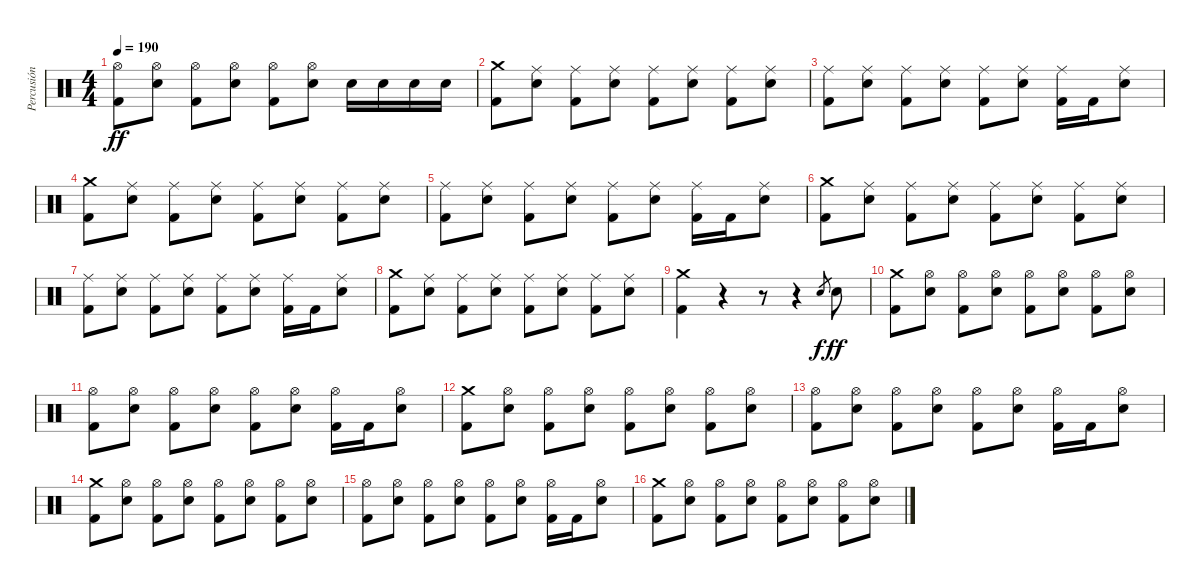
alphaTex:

\track ("Percusión" "Percusión") {instrument percussion}
\staff {score}
\articulation defaults
\ts (4 4)
\tempo 190
\clef neutral
\ks c
("Hi-Hat (open)" "Kick (hit) 2").8{dy ff} ("Hi-Hat (open)" "Snare (hit) 2").8 ("Hi-Hat (open)" "Kick (hit) 2").8 ("Hi-Hat (open)" "Snare (hit) 2").8 ("Hi-Hat (open)" "Kick (hit) 2").8 ("Hi-Hat (open)" "Snare (hit) 2").8 "Snare (hit) 2".16 "Snare (hit) 2".16 "Snare (hit) 2".16 "Snare (hit) 2".16 |
("Crash medium (hit)" "Kick (hit) 2").8 ("Ride (middle)" "Snare (hit) 2").8 ("Ride (middle)" "Kick (hit) 2").8 ("Ride (middle)" "Snare (hit) 2").8 ("Ride (middle)" "Kick (hit) 2").8 ("Ride (middle)" "Snare (hit) 2").8 ("Ride (middle)" "Kick (hit) 2").8 ("Ride (middle)" "Snare (hit) 2").8 |
("Ride (middle)" "Kick (hit) 2").8 ("Ride (middle)" "Snare (hit) 2").8 ("Ride (middle)" "Kick (hit) 2").8 ("Ride (middle)" "Snare (hit) 2").8 ("Ride (middle)" "Kick (hit) 2").8 ("Ride (middle)" "Snare (hit) 2").8 ("Ride (middle)" "Kick (hit) 2").16 "Kick (hit) 2".16 ("Ride (middle)" "Snare (hit) 2").8 |
("Crash medium (hit)" "Kick (hit) 2").8 ("Ride (middle)" "Snare (hit) 2").8 ("Ride (middle)" "Kick (hit) 2").8 ("Ride (middle)" "Snare (hit) 2").8 ("Ride (middle)" "Kick (hit) 2").8 ("Ride (middle)" "Snare (hit) 2").8 ("Ride (middle)" "Kick (hit) 2").8 ("Ride (middle)" "Snare (hit) 2").8 |
("Ride (middle)" "Kick (hit) 2").8 ("Ride (middle)" "Snare (hit) 2").8 ("Ride (middle)" "Kick (hit) 2").8 ("Ride (middle)" "Snare (hit) 2").8 ("Ride (middle)" "Kick (hit) 2").8 ("Ride (middle)" "Snare (hit) 2").8 ("Ride (middle)" "Kick (hit) 2").16 "Kick (hit) 2".16 ("Ride (middle)" "Snare (hit) 2").8 |
("Crash medium (hit)" "Kick (hit) 2").8 ("Ride (middle)" "Snare (hit) 2").8 ("Ride (middle)" "Kick (hit) 2").8 ("Ride (middle)" "Snare (hit) 2").8 ("Ride (middle)" "Kick (hit) 2").8 ("Ride (middle)" "Snare (hit) 2").8 ("Ride (middle)" "Kick (hit) 2").8 ("Ride (middle)" "Snare (hit) 2").8 |
("Ride (middle)" "Kick (hit) 2").8 ("Ride (middle)" "Snare (hit) 2").8 ("Ride (middle)" "Kick (hit) 2").8 ("Ride (middle)" "Snare (hit) 2").8 ("Ride (middle)" "Kick (hit) 2").8 ("Ride (middle)" "Snare (hit) 2").8 ("Ride (middle)" "Kick (hit) 2").16 "Kick (hit) 2".16 ("Ride (middle)" "Snare (hit) 2").8 |
("Crash medium (hit)" "Kick (hit) 2").8 ("Ride (middle)" "Snare (hit) 2").8 ("Ride (middle)" "Kick (hit) 2").8 ("Ride (middle)" "Snare (hit) 2").8 ("Ride (middle)" "Kick (hit) 2").8 ("Ride (middle)" "Snare (hit) 2").8 ("Ride (middle)" "Kick (hit) 2").8 ("Ride (middle)" "Snare (hit) 2").8 |
("Crash medium (hit)" "Kick (hit) 2").4 r.4 r.8 r.4 "Snare (hit) 2".8{gr dy f} "Snare (hit) 2".8{dy ff} |
("Crash medium (hit)" "Kick (hit) 2").8 ("Hi-Hat (open)" "Snare (hit) 2").8 ("Hi-Hat (open)" "Kick (hit) 2").8 ("Hi-Hat (open)" "Snare (hit) 2").8 ("Hi-Hat (open)" "Kick (hit) 2").8 ("Hi-Hat (open)" "Snare (hit) 2").8 ("Hi-Hat (open)" "Kick (hit) 2").8 ("Hi-Hat (open)" "Snare (hit) 2").8 |
("Hi-Hat (open)" "Kick (hit) 2").8 ("Hi-Hat (open)" "Snare (hit) 2").8 ("Hi-Hat (open)" "Kick (hit) 2").8 ("Hi-Hat (open)" "Snare (hit) 2").8 ("Hi-Hat (open)" "Kick (hit) 2").8 ("Hi-Hat (open)" "Snare (hit) 2").8 ("Hi-Hat (open)" "Kick (hit) 2").16 "Kick (hit) 2".16 ("Hi-Hat (open)" "Snare (hit) 2").8 |
("Crash medium (hit)" "Kick (hit) 2").8 ("Hi-Hat (open)" "Snare (hit) 2").8 ("Hi-Hat (open)" "Kick (hit) 2").8 ("Hi-Hat (open)" "Snare (hit) 2").8 ("Hi-Hat (open)" "Kick (hit) 2").8 ("Hi-Hat (open)" "Snare (hit) 2").8 ("Hi-Hat (open)" "Kick (hit) 2").8 ("Hi-Hat (open)" "Snare (hit) 2").8 |
("Hi-Hat (open)" "Kick (hit) 2").8 ("Hi-Hat (open)" "Snare (hit) 2").8 ("Hi-Hat (open)" "Kick (hit) 2").8 ("Hi-Hat (open)" "Snare (hit) 2").8 ("Hi-Hat (open)" "Kick (hit) 2").8 ("Hi-Hat (open)" "Snare (hit) 2").8 ("Hi-Hat (open)" "Kick (hit) 2").16 "Kick (hit) 2".16 ("Hi-Hat (open)" "Snare (hit) 2").8 |
("Crash medium (hit)" "Kick (hit) 2").8 ("Hi-Hat (open)" "Snare (hit) 2").8 ("Hi-Hat (open)" "Kick (hit) 2").8 ("Hi-Hat (open)" "Snare (hit) 2").8 ("Hi-Hat (open)" "Kick (hit) 2").8 ("Hi-Hat (open)" "Snare (hit) 2").8 ("Hi-Hat (open)" "Kick (hit) 2").8 ("Hi-Hat (open)" "Snare (hit) 2").8 |
("Hi-Hat (open)" "Kick (hit) 2").8 ("Hi-Hat (open)" "Snare (hit) 2").8 ("Hi-Hat (open)" "Kick (hit) 2").8 ("Hi-Hat (open)" "Snare (hit) 2").8 ("Hi-Hat (open)" "Kick (hit) 2").8 ("Hi-Hat (open)" "Snare (hit) 2").8 ("Hi-Hat (open)" "Kick (hit) 2").16 "Kick (hit) 2".16 ("Hi-Hat (open)" "Snare (hit) 2").8 |
("Crash medium (hit)" "Kick (hit) 2").8 ("Hi-Hat (open)" "Snare (hit) 2").8 ("Hi-Hat (open)" "Kick (hit) 2").8 ("Hi-Hat (open)" "Snare (hit) 2").8 ("Hi-Hat (open)" "Kick (hit) 2").8 ("Hi-Hat (open)" "Snare (hit) 2").8 ("Hi-Hat (open)" "Kick (hit) 2").8 ("Hi-Hat (open)" "Snare (hit) 2").8
